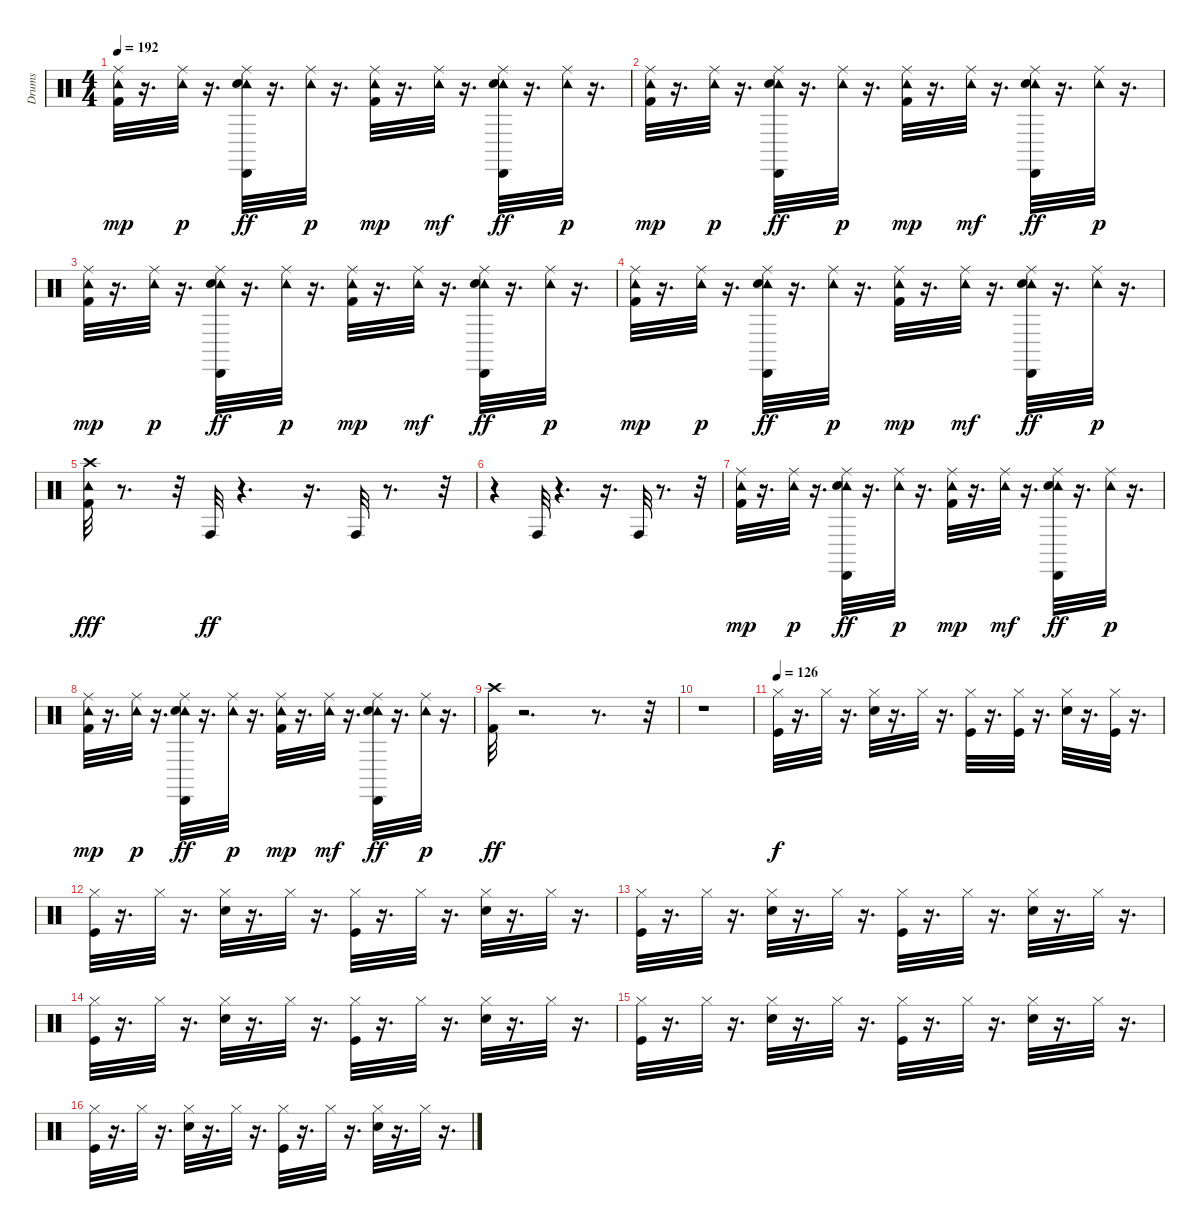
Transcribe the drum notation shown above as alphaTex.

\track ("Drums" "Drums") {instrument percussion}
\staff {score}
\articulation defaults
\ts (4 4)
\tempo 192
\clef neutral
\ks c
("Kick (hit) 2" "Tambourine (hit)" "Ride (middle)").32{dy mp} r.16{d} ("Ride (middle)" "Tambourine (hit)").32{dy p} r.16{d} ("Tambourine (hit)" "Cabasa (hit)" "Ride (middle)" "Snare (hit) 2").32{dy ff} r.16{d} ("Ride (middle)" "Tambourine (hit)").32{dy p} r.16{d} ("Kick (hit) 2" "Tambourine (hit)" "Ride (middle)").32{dy mp} r.16{d} ("Tambourine (hit)" "Ride (middle)").32{dy mf} r.16{d} ("Tambourine (hit)" "Cabasa (hit)" "Ride (middle)" "Snare (hit) 2").32{dy ff} r.16{d} ("Ride (middle)" "Tambourine (hit)").32{dy p} r.16{d} |
("Kick (hit) 2" "Tambourine (hit)" "Ride (middle)").32{dy mp} r.16{d} ("Ride (middle)" "Tambourine (hit)").32{dy p} r.16{d} ("Tambourine (hit)" "Cabasa (hit)" "Ride (middle)" "Snare (hit) 2").32{dy ff} r.16{d} ("Ride (middle)" "Tambourine (hit)").32{dy p} r.16{d} ("Kick (hit) 2" "Tambourine (hit)" "Ride (middle)").32{dy mp} r.16{d} ("Tambourine (hit)" "Ride (middle)").32{dy mf} r.16{d} ("Tambourine (hit)" "Cabasa (hit)" "Ride (middle)" "Snare (hit) 2").32{dy ff} r.16{d} ("Ride (middle)" "Tambourine (hit)").32{dy p} r.16{d} |
("Kick (hit) 2" "Tambourine (hit)" "Ride (middle)").32{dy mp} r.16{d} ("Ride (middle)" "Tambourine (hit)").32{dy p} r.16{d} ("Tambourine (hit)" "Cabasa (hit)" "Ride (middle)" "Snare (hit) 2").32{dy ff} r.16{d} ("Ride (middle)" "Tambourine (hit)").32{dy p} r.16{d} ("Kick (hit) 2" "Tambourine (hit)" "Ride (middle)").32{dy mp} r.16{d} ("Tambourine (hit)" "Ride (middle)").32{dy mf} r.16{d} ("Tambourine (hit)" "Cabasa (hit)" "Ride (middle)" "Snare (hit) 2").32{dy ff} r.16{d} ("Ride (middle)" "Tambourine (hit)").32{dy p} r.16{d} |
("Kick (hit) 2" "Tambourine (hit)" "Ride (middle)").32{dy mp} r.16{d} ("Ride (middle)" "Tambourine (hit)").32{dy p} r.16{d} ("Tambourine (hit)" "Cabasa (hit)" "Ride (middle)" "Snare (hit) 2").32{dy ff} r.16{d} ("Ride (middle)" "Tambourine (hit)").32{dy p} r.16{d} ("Kick (hit) 2" "Tambourine (hit)" "Ride (middle)").32{dy mp} r.16{d} ("Tambourine (hit)" "Ride (middle)").32{dy mf} r.16{d} ("Tambourine (hit)" "Cabasa (hit)" "Ride (middle)" "Snare (hit) 2").32{dy ff} r.16{d} ("Ride (middle)" "Tambourine (hit)").32{dy p} r.16{d} |
("Tambourine (hit)" "Kick (hit) 2" "Crash high (hit)").32{dy fff} r.8{d} r.32 "Conga high (hit)".32{dy ff} r.4{d} r.16{d} "Conga high (hit)".32 r.8{d} r.32 |
r.4 "Conga high (hit)".32 r.4{d} r.16{d} "Conga high (hit)".32 r.8{d} r.32 |
("Kick (hit) 2" "Tambourine (hit)" "Ride (middle)").32{dy mp} r.16{d} ("Ride (middle)" "Tambourine (hit)").32{dy p} r.16{d} ("Tambourine (hit)" "Cabasa (hit)" "Ride (middle)" "Snare (hit) 2").32{dy ff} r.16{d} ("Ride (middle)" "Tambourine (hit)").32{dy p} r.16{d} ("Kick (hit) 2" "Tambourine (hit)" "Ride (middle)").32{dy mp} r.16{d} ("Tambourine (hit)" "Ride (middle)").32{dy mf} r.16{d} ("Tambourine (hit)" "Cabasa (hit)" "Ride (middle)" "Snare (hit) 2").32{dy ff} r.16{d} ("Ride (middle)" "Tambourine (hit)").32{dy p} r.16{d} |
("Kick (hit) 2" "Tambourine (hit)" "Ride (middle)").32{dy mp} r.16{d} ("Ride (middle)" "Tambourine (hit)").32{dy p} r.16{d} ("Tambourine (hit)" "Cabasa (hit)" "Ride (middle)" "Snare (hit) 2").32{dy ff} r.16{d} ("Ride (middle)" "Tambourine (hit)").32{dy p} r.16{d} ("Kick (hit) 2" "Tambourine (hit)" "Ride (middle)").32{dy mp} r.16{d} ("Tambourine (hit)" "Ride (middle)").32{dy mf} r.16{d} ("Tambourine (hit)" "Cabasa (hit)" "Ride (middle)" "Snare (hit) 2").32{dy ff} r.16{d} ("Ride (middle)" "Tambourine (hit)").32{dy p} r.16{d} |
("Crash high (hit)" "Kick (hit) 2").32{dy ff} r.2{d} r.8{d} r.32 |
r.1 |
\tempo 126
("Kick (hit)" "Hi-Hat (closed)").32{dy f} r.16{d} "Hi-Hat (closed)".32 r.16{d} ("Snare (hit) 2" "Hi-Hat (closed)").32 r.16{d} "Hi-Hat (closed)".32 r.16{d} ("Kick (hit)" "Hi-Hat (closed)").32 r.16{d} ("Hi-Hat (closed)" "Kick (hit)").32 r.16{d} ("Hi-Hat (closed)" "Snare (hit) 2").32 r.16{d} ("Hi-Hat (closed)" "Kick (hit)").32 r.16{d} |
("Hi-Hat (closed)" "Kick (hit)").32 r.16{d} "Hi-Hat (closed)".32 r.16{d} ("Snare (hit) 2" "Hi-Hat (closed)").32 r.16{d} "Hi-Hat (closed)".32 r.16{d} ("Hi-Hat (closed)" "Kick (hit)").32 r.16{d} "Hi-Hat (closed)".32 r.16{d} ("Snare (hit) 2" "Hi-Hat (closed)").32 r.16{d} "Hi-Hat (closed)".32 r.16{d} |
("Hi-Hat (closed)" "Kick (hit)").32 r.16{d} "Hi-Hat (closed)".32 r.16{d} ("Snare (hit) 2" "Hi-Hat (closed)").32 r.16{d} "Hi-Hat (closed)".32 r.16{d} ("Hi-Hat (closed)" "Kick (hit)").32 r.16{d} "Hi-Hat (closed)".32 r.16{d} ("Snare (hit) 2" "Hi-Hat (closed)").32 r.16{d} "Hi-Hat (closed)".32 r.16{d} |
("Hi-Hat (closed)" "Kick (hit)").32 r.16{d} "Hi-Hat (closed)".32 r.16{d} ("Hi-Hat (closed)" "Snare (hit) 2").32 r.16{d} "Hi-Hat (closed)".32 r.16{d} ("Hi-Hat (closed)" "Kick (hit)").32 r.16{d} "Hi-Hat (closed)".32 r.16{d} ("Hi-Hat (closed)" "Snare (hit) 2").32 r.16{d} "Hi-Hat (closed)".32 r.16{d} |
("Kick (hit)" "Hi-Hat (closed)").32 r.16{d} "Hi-Hat (closed)".32 r.16{d} ("Snare (hit) 2" "Hi-Hat (closed)").32 r.16{d} "Hi-Hat (closed)".32 r.16{d} ("Kick (hit)" "Hi-Hat (closed)").32 r.16{d} "Hi-Hat (closed)".32 r.16{d} ("Hi-Hat (closed)" "Snare (hit) 2").32 r.16{d} "Hi-Hat (closed)".32 r.16{d} |
("Kick (hit)" "Hi-Hat (closed)").32 r.16{d} "Hi-Hat (closed)".32 r.16{d} ("Snare (hit) 2" "Hi-Hat (closed)").32 r.16{d} "Hi-Hat (closed)".32 r.16{d} ("Kick (hit)" "Hi-Hat (closed)").32 r.16{d} "Hi-Hat (closed)".32 r.16{d} ("Snare (hit) 2" "Hi-Hat (closed)").32 r.16{d} "Hi-Hat (closed)".32 r.16{d}
